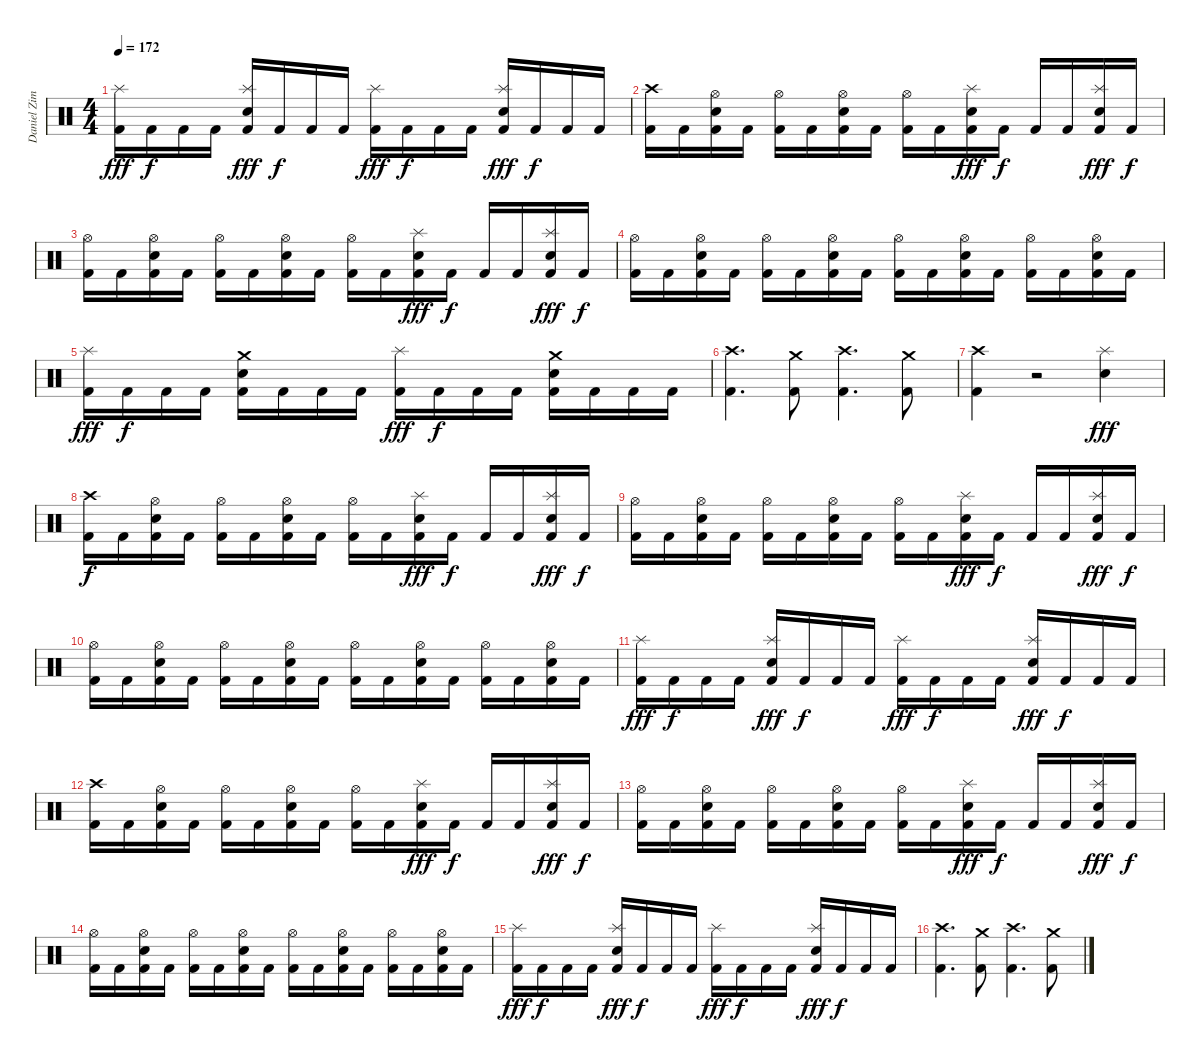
\track ("Daniel Zimmermann - Drums" "Daniel Zim") {instrument percussion}
\staff {score}
\articulation defaults
\ts (4 4)
\tempo 172
\clef neutral
\ks c
("Kick (hit) 2" "Splash (hit)").16{dy fff} "Kick (hit) 2".16{dy f} "Kick (hit) 2".16 "Kick (hit) 2".16 ("Kick (hit) 2" "Electric Snare (hit)" "Splash (hit)").16{dy fff} "Kick (hit) 2".16{dy f} "Kick (hit) 2".16 "Kick (hit) 2".16 ("Kick (hit) 2" "Splash (hit)").16{dy fff} "Kick (hit) 2".16{dy f} "Kick (hit) 2".16 "Kick (hit) 2".16 ("Kick (hit) 2" "Electric Snare (hit)" "Splash (hit)").16{dy fff} "Kick (hit) 2".16{dy f} "Kick (hit) 2".16 "Kick (hit) 2".16 |
("Kick (hit) 2" "Crash high (hit)").16 "Kick (hit) 2".16 ("Kick (hit) 2" "Electric Snare (hit)" "Hi-Hat (open)").16 "Kick (hit) 2".16 ("Kick (hit) 2" "Hi-Hat (open)").16 "Kick (hit) 2".16 ("Kick (hit) 2" "Electric Snare (hit)" "Hi-Hat (open)").16 "Kick (hit) 2".16 ("Kick (hit) 2" "Hi-Hat (open)").16 "Kick (hit) 2".16 ("Kick (hit) 2" "Electric Snare (hit)" "Splash (hit)").16{dy fff} "Kick (hit) 2".16{dy f} "Kick (hit) 2".16 "Kick (hit) 2".16 ("Kick (hit) 2" "Electric Snare (hit)" "Splash (hit)").16{dy fff} "Kick (hit) 2".16{dy f} |
("Kick (hit) 2" "Hi-Hat (open)").16 "Kick (hit) 2".16 ("Kick (hit) 2" "Electric Snare (hit)" "Hi-Hat (open)").16 "Kick (hit) 2".16 ("Kick (hit) 2" "Hi-Hat (open)").16 "Kick (hit) 2".16 ("Kick (hit) 2" "Electric Snare (hit)" "Hi-Hat (open)").16 "Kick (hit) 2".16 ("Kick (hit) 2" "Hi-Hat (open)").16 "Kick (hit) 2".16 ("Kick (hit) 2" "Electric Snare (hit)" "Splash (hit)").16{dy fff} "Kick (hit) 2".16{dy f} "Kick (hit) 2".16 "Kick (hit) 2".16 ("Kick (hit) 2" "Electric Snare (hit)" "Splash (hit)").16{dy fff} "Kick (hit) 2".16{dy f} |
("Kick (hit) 2" "Hi-Hat (open)").16 "Kick (hit) 2".16 ("Kick (hit) 2" "Electric Snare (hit)" "Hi-Hat (open)").16 "Kick (hit) 2".16 ("Kick (hit) 2" "Hi-Hat (open)").16 "Kick (hit) 2".16 ("Kick (hit) 2" "Electric Snare (hit)" "Hi-Hat (open)").16 "Kick (hit) 2".16 ("Kick (hit) 2" "Hi-Hat (open)").16 "Kick (hit) 2".16 ("Kick (hit) 2" "Electric Snare (hit)" "Hi-Hat (open)").16 "Kick (hit) 2".16 ("Kick (hit) 2" "Hi-Hat (open)").16 "Kick (hit) 2".16 ("Kick (hit) 2" "Electric Snare (hit)" "Hi-Hat (open)").16 "Kick (hit) 2".16 |
("Kick (hit) 2" "Splash (hit)").16{dy fff} "Kick (hit) 2".16{dy f} "Kick (hit) 2".16 "Kick (hit) 2".16 ("Kick (hit) 2" "Electric Snare (hit)" "Crash medium (hit)").16 "Kick (hit) 2".16 "Kick (hit) 2".16 "Kick (hit) 2".16 ("Kick (hit) 2" "Splash (hit)").16{dy fff} "Kick (hit) 2".16{dy f} "Kick (hit) 2".16 "Kick (hit) 2".16 ("Kick (hit) 2" "Electric Snare (hit)" "Crash medium (hit)").16 "Kick (hit) 2".16 "Kick (hit) 2".16 "Kick (hit) 2".16 |
("Kick (hit) 2" "Crash high (hit)").4{d} ("Kick (hit) 2" "Crash medium (hit)").8 ("Kick (hit) 2" "Crash high (hit)").4{d} ("Kick (hit) 2" "Crash medium (hit)").8 |
("Kick (hit) 2" "Crash high (hit)").4 r.2 ("Electric Snare (hit)" "Splash (hit)").4{dy fff} |
("Kick (hit) 2" "Crash high (hit)").16{dy f} "Kick (hit) 2".16 ("Kick (hit) 2" "Electric Snare (hit)" "Hi-Hat (open)").16 "Kick (hit) 2".16 ("Kick (hit) 2" "Hi-Hat (open)").16 "Kick (hit) 2".16 ("Kick (hit) 2" "Electric Snare (hit)" "Hi-Hat (open)").16 "Kick (hit) 2".16 ("Kick (hit) 2" "Hi-Hat (open)").16 "Kick (hit) 2".16 ("Kick (hit) 2" "Electric Snare (hit)" "Splash (hit)").16{dy fff} "Kick (hit) 2".16{dy f} "Kick (hit) 2".16 "Kick (hit) 2".16 ("Kick (hit) 2" "Electric Snare (hit)" "Splash (hit)").16{dy fff} "Kick (hit) 2".16{dy f} |
("Kick (hit) 2" "Hi-Hat (open)").16 "Kick (hit) 2".16 ("Kick (hit) 2" "Electric Snare (hit)" "Hi-Hat (open)").16 "Kick (hit) 2".16 ("Kick (hit) 2" "Hi-Hat (open)").16 "Kick (hit) 2".16 ("Kick (hit) 2" "Electric Snare (hit)" "Hi-Hat (open)").16 "Kick (hit) 2".16 ("Kick (hit) 2" "Hi-Hat (open)").16 "Kick (hit) 2".16 ("Kick (hit) 2" "Electric Snare (hit)" "Splash (hit)").16{dy fff} "Kick (hit) 2".16{dy f} "Kick (hit) 2".16 "Kick (hit) 2".16 ("Kick (hit) 2" "Electric Snare (hit)" "Splash (hit)").16{dy fff} "Kick (hit) 2".16{dy f} |
("Kick (hit) 2" "Hi-Hat (open)").16 "Kick (hit) 2".16 ("Kick (hit) 2" "Electric Snare (hit)" "Hi-Hat (open)").16 "Kick (hit) 2".16 ("Kick (hit) 2" "Hi-Hat (open)").16 "Kick (hit) 2".16 ("Kick (hit) 2" "Electric Snare (hit)" "Hi-Hat (open)").16 "Kick (hit) 2".16 ("Kick (hit) 2" "Hi-Hat (open)").16 "Kick (hit) 2".16 ("Kick (hit) 2" "Electric Snare (hit)" "Hi-Hat (open)").16 "Kick (hit) 2".16 ("Kick (hit) 2" "Hi-Hat (open)").16 "Kick (hit) 2".16 ("Kick (hit) 2" "Electric Snare (hit)" "Hi-Hat (open)").16 "Kick (hit) 2".16 |
("Kick (hit) 2" "Splash (hit)").16{dy fff} "Kick (hit) 2".16{dy f} "Kick (hit) 2".16 "Kick (hit) 2".16 ("Kick (hit) 2" "Electric Snare (hit)" "Splash (hit)").16{dy fff} "Kick (hit) 2".16{dy f} "Kick (hit) 2".16 "Kick (hit) 2".16 ("Kick (hit) 2" "Splash (hit)").16{dy fff} "Kick (hit) 2".16{dy f} "Kick (hit) 2".16 "Kick (hit) 2".16 ("Kick (hit) 2" "Electric Snare (hit)" "Splash (hit)").16{dy fff} "Kick (hit) 2".16{dy f} "Kick (hit) 2".16 "Kick (hit) 2".16 |
("Kick (hit) 2" "Crash high (hit)").16 "Kick (hit) 2".16 ("Kick (hit) 2" "Electric Snare (hit)" "Hi-Hat (open)").16 "Kick (hit) 2".16 ("Kick (hit) 2" "Hi-Hat (open)").16 "Kick (hit) 2".16 ("Kick (hit) 2" "Electric Snare (hit)" "Hi-Hat (open)").16 "Kick (hit) 2".16 ("Kick (hit) 2" "Hi-Hat (open)").16 "Kick (hit) 2".16 ("Kick (hit) 2" "Electric Snare (hit)" "Splash (hit)").16{dy fff} "Kick (hit) 2".16{dy f} "Kick (hit) 2".16 "Kick (hit) 2".16 ("Kick (hit) 2" "Electric Snare (hit)" "Splash (hit)").16{dy fff} "Kick (hit) 2".16{dy f} |
("Kick (hit) 2" "Hi-Hat (open)").16 "Kick (hit) 2".16 ("Kick (hit) 2" "Electric Snare (hit)" "Hi-Hat (open)").16 "Kick (hit) 2".16 ("Kick (hit) 2" "Hi-Hat (open)").16 "Kick (hit) 2".16 ("Kick (hit) 2" "Electric Snare (hit)" "Hi-Hat (open)").16 "Kick (hit) 2".16 ("Kick (hit) 2" "Hi-Hat (open)").16 "Kick (hit) 2".16 ("Kick (hit) 2" "Electric Snare (hit)" "Splash (hit)").16{dy fff} "Kick (hit) 2".16{dy f} "Kick (hit) 2".16 "Kick (hit) 2".16 ("Kick (hit) 2" "Electric Snare (hit)" "Splash (hit)").16{dy fff} "Kick (hit) 2".16{dy f} |
("Kick (hit) 2" "Hi-Hat (open)").16 "Kick (hit) 2".16 ("Kick (hit) 2" "Electric Snare (hit)" "Hi-Hat (open)").16 "Kick (hit) 2".16 ("Kick (hit) 2" "Hi-Hat (open)").16 "Kick (hit) 2".16 ("Kick (hit) 2" "Electric Snare (hit)" "Hi-Hat (open)").16 "Kick (hit) 2".16 ("Kick (hit) 2" "Hi-Hat (open)").16 "Kick (hit) 2".16 ("Kick (hit) 2" "Electric Snare (hit)" "Hi-Hat (open)").16 "Kick (hit) 2".16 ("Kick (hit) 2" "Hi-Hat (open)").16 "Kick (hit) 2".16 ("Kick (hit) 2" "Electric Snare (hit)" "Hi-Hat (open)").16 "Kick (hit) 2".16 |
("Kick (hit) 2" "Splash (hit)").16{dy fff} "Kick (hit) 2".16{dy f} "Kick (hit) 2".16 "Kick (hit) 2".16 ("Kick (hit) 2" "Electric Snare (hit)" "Splash (hit)").16{dy fff} "Kick (hit) 2".16{dy f} "Kick (hit) 2".16 "Kick (hit) 2".16 ("Kick (hit) 2" "Splash (hit)").16{dy fff} "Kick (hit) 2".16{dy f} "Kick (hit) 2".16 "Kick (hit) 2".16 ("Kick (hit) 2" "Electric Snare (hit)" "Splash (hit)").16{dy fff} "Kick (hit) 2".16{dy f} "Kick (hit) 2".16 "Kick (hit) 2".16 |
("Kick (hit) 2" "Crash high (hit)").4{d} ("Kick (hit) 2" "Crash medium (hit)").8 ("Kick (hit) 2" "Crash high (hit)").4{d} ("Kick (hit) 2" "Crash medium (hit)").8
